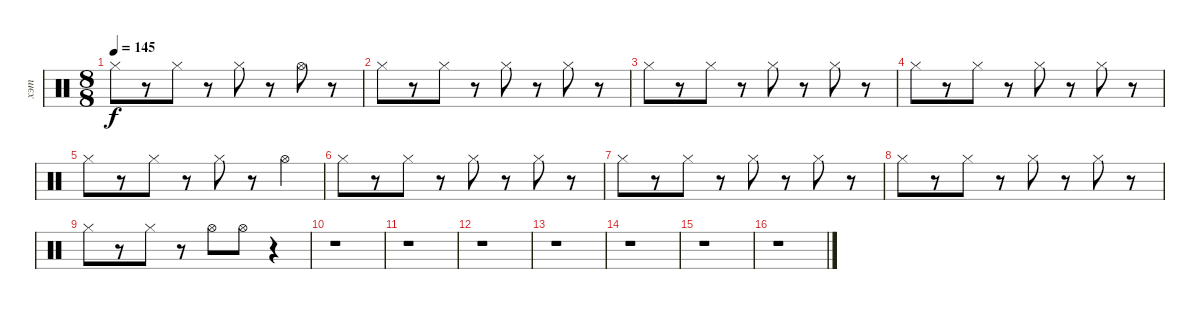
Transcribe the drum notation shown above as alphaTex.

\track ("хэт" "хэт") {instrument percussion}
\staff {score}
\articulation defaults
\ts (8 8)
\tempo 145
\clef neutral
\ks c "Hi-Hat (closed)".8{dy f}
r.8 "Hi-Hat (closed)".8 r.8 "Hi-Hat (closed)".8 r.8 "Hi-Hat (open)".8 r.8 |
"Hi-Hat (closed)".8 r.8 "Hi-Hat (closed)".8 r.8 "Hi-Hat (closed)".8 r.8 "Hi-Hat (closed)".8 r.8 |
"Hi-Hat (closed)".8 r.8 "Hi-Hat (closed)".8 r.8 "Hi-Hat (closed)".8 r.8 "Hi-Hat (closed)".8 r.8 |
"Hi-Hat (closed)".8 r.8 "Hi-Hat (closed)".8 r.8 "Hi-Hat (closed)".8 r.8 "Hi-Hat (closed)".8 r.8 |
"Hi-Hat (closed)".8 r.8 "Hi-Hat (closed)".8 r.8 "Hi-Hat (closed)".8 r.8 "Hi-Hat (open)".4 |
"Hi-Hat (closed)".8 r.8 "Hi-Hat (closed)".8 r.8 "Hi-Hat (closed)".8 r.8 "Hi-Hat (closed)".8 r.8 |
"Hi-Hat (closed)".8 r.8 "Hi-Hat (closed)".8 r.8 "Hi-Hat (closed)".8 r.8 "Hi-Hat (closed)".8 r.8 |
"Hi-Hat (closed)".8 r.8 "Hi-Hat (closed)".8 r.8 "Hi-Hat (closed)".8 r.8 "Hi-Hat (closed)".8 r.8 |
"Hi-Hat (closed)".8 r.8 "Hi-Hat (closed)".8 r.8 "Hi-Hat (open)".8 "Hi-Hat (open)".8 r.4 |
r.1 |
r.1 |
r.1 |
r.1 |
r.1 |
r.1 |
r.1
